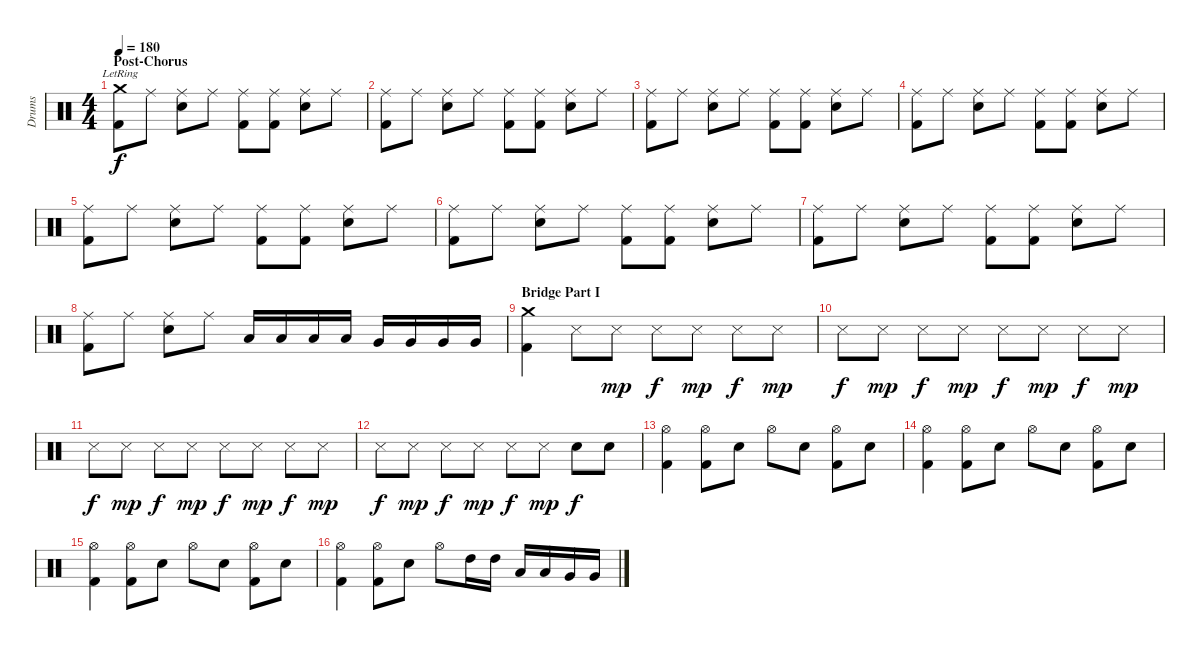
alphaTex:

\track ("Drums" "Drums") {instrument percussion}
\staff {score}
\articulation defaults
\ts (4 4)
\section ("" "Post-Chorus")
\tempo 180
\clef neutral
\ks c
("Crash medium (hit)"{lr} "Kick (hit) 2").8{dy f} "Ride (middle)".8 ("Ride (middle)" "Electric Snare (hit)").8 "Ride (middle)".8 ("Ride (middle)" "Kick (hit) 2").8 ("Ride (middle)" "Kick (hit) 2").8 ("Ride (middle)" "Electric Snare (hit)").8 "Ride (middle)".8 |
("Ride (middle)" "Kick (hit) 2").8 "Ride (middle)".8 ("Ride (middle)" "Electric Snare (hit)").8 "Ride (middle)".8 ("Ride (middle)" "Kick (hit) 2").8 ("Ride (middle)" "Kick (hit) 2").8 ("Ride (middle)" "Electric Snare (hit)").8 "Ride (middle)".8 |
("Ride (middle)" "Kick (hit) 2").8 "Ride (middle)".8 ("Ride (middle)" "Electric Snare (hit)").8 "Ride (middle)".8 ("Ride (middle)" "Kick (hit) 2").8 ("Ride (middle)" "Kick (hit) 2").8 ("Ride (middle)" "Electric Snare (hit)").8 "Ride (middle)".8 |
("Ride (middle)" "Kick (hit) 2").8 "Ride (middle)".8 ("Ride (middle)" "Electric Snare (hit)").8 "Ride (middle)".8 ("Ride (middle)" "Kick (hit) 2").8 ("Ride (middle)" "Kick (hit) 2").8 ("Ride (middle)" "Electric Snare (hit)").8 "Ride (middle)".8 |
("Ride (middle)" "Kick (hit) 2").8 "Ride (middle)".8 ("Ride (middle)" "Electric Snare (hit)").8 "Ride (middle)".8 ("Ride (middle)" "Kick (hit) 2").8 ("Ride (middle)" "Kick (hit) 2").8 ("Ride (middle)" "Electric Snare (hit)").8 "Ride (middle)".8 |
("Ride (middle)" "Kick (hit) 2").8 "Ride (middle)".8 ("Ride (middle)" "Electric Snare (hit)").8 "Ride (middle)".8 ("Ride (middle)" "Kick (hit) 2").8 ("Ride (middle)" "Kick (hit) 2").8 ("Ride (middle)" "Electric Snare (hit)").8 "Ride (middle)".8 |
("Ride (middle)" "Kick (hit) 2").8 "Ride (middle)".8 ("Ride (middle)" "Electric Snare (hit)").8 "Ride (middle)".8 ("Ride (middle)" "Kick (hit) 2").8 ("Ride (middle)" "Kick (hit) 2").8 ("Ride (middle)" "Electric Snare (hit)").8 "Ride (middle)".8 |
("Ride (middle)" "Kick (hit) 2").8 "Ride (middle)".8 ("Ride (middle)" "Electric Snare (hit)").8 "Ride (middle)".8 "Low Tom (hit)".16 "Low Tom (hit)".16 "Low Tom (hit)".16 "Low Tom (hit)".16 "Very Low Tom (hit)".16 "Very Low Tom (hit)".16 "Very Low Tom (hit)".16 "Very Low Tom (hit)".16 |
\section ("" "Bridge Part I")
("Crash medium (hit)" "Kick (hit) 2").4 "Snare (side stick) 3".8 "Snare (side stick) 3".8{dy mp} "Snare (side stick) 3".8{dy f} "Snare (side stick) 3".8{dy mp} "Snare (side stick) 3".8{dy f} "Snare (side stick) 3".8{dy mp} |
"Snare (side stick) 3".8{dy f} "Snare (side stick) 3".8{dy mp} "Snare (side stick) 3".8{dy f} "Snare (side stick) 3".8{dy mp} "Snare (side stick) 3".8{dy f} "Snare (side stick) 3".8{dy mp} "Snare (side stick) 3".8{dy f} "Snare (side stick) 3".8{dy mp} |
"Snare (side stick) 3".8{dy f} "Snare (side stick) 3".8{dy mp} "Snare (side stick) 3".8{dy f} "Snare (side stick) 3".8{dy mp} "Snare (side stick) 3".8{dy f} "Snare (side stick) 3".8{dy mp} "Snare (side stick) 3".8{dy f} "Snare (side stick) 3".8{dy mp} |
"Snare (side stick) 3".8{dy f} "Snare (side stick) 3".8{dy mp} "Snare (side stick) 3".8{dy f} "Snare (side stick) 3".8{dy mp} "Snare (side stick) 3".8{dy f} "Snare (side stick) 3".8{dy mp} "Electric Snare (hit)".8{dy f} "Electric Snare (hit)".8 |
("Hi-Hat (open)" "Kick (hit) 2").4 ("Hi-Hat (open)" "Kick (hit) 2").8 "Electric Snare (hit)".8 "Hi-Hat (open)".8 "Electric Snare (hit)".8 ("Hi-Hat (open)" "Kick (hit) 2").8 "Electric Snare (hit)".8 |
("Hi-Hat (open)" "Kick (hit) 2").4 ("Hi-Hat (open)" "Kick (hit) 2").8 "Electric Snare (hit)".8 "Hi-Hat (open)".8 "Electric Snare (hit)".8 ("Hi-Hat (open)" "Kick (hit) 2").8 "Electric Snare (hit)".8 |
("Hi-Hat (open)" "Kick (hit) 2").4 ("Hi-Hat (open)" "Kick (hit) 2").8 "Electric Snare (hit)".8 "Hi-Hat (open)".8 "Electric Snare (hit)".8 ("Hi-Hat (open)" "Kick (hit) 2").8 "Electric Snare (hit)".8 |
("Hi-Hat (open)" "Kick (hit) 2").4 ("Hi-Hat (open)" "Kick (hit) 2").8 "Electric Snare (hit)".8 "Hi-Hat (open)".8 "High Tom (hit)".16 "High Tom (hit)".16 "Low Tom (hit)".16 "Low Tom (hit)".16 "Very Low Tom (hit)".16 "Very Low Tom (hit)".16
